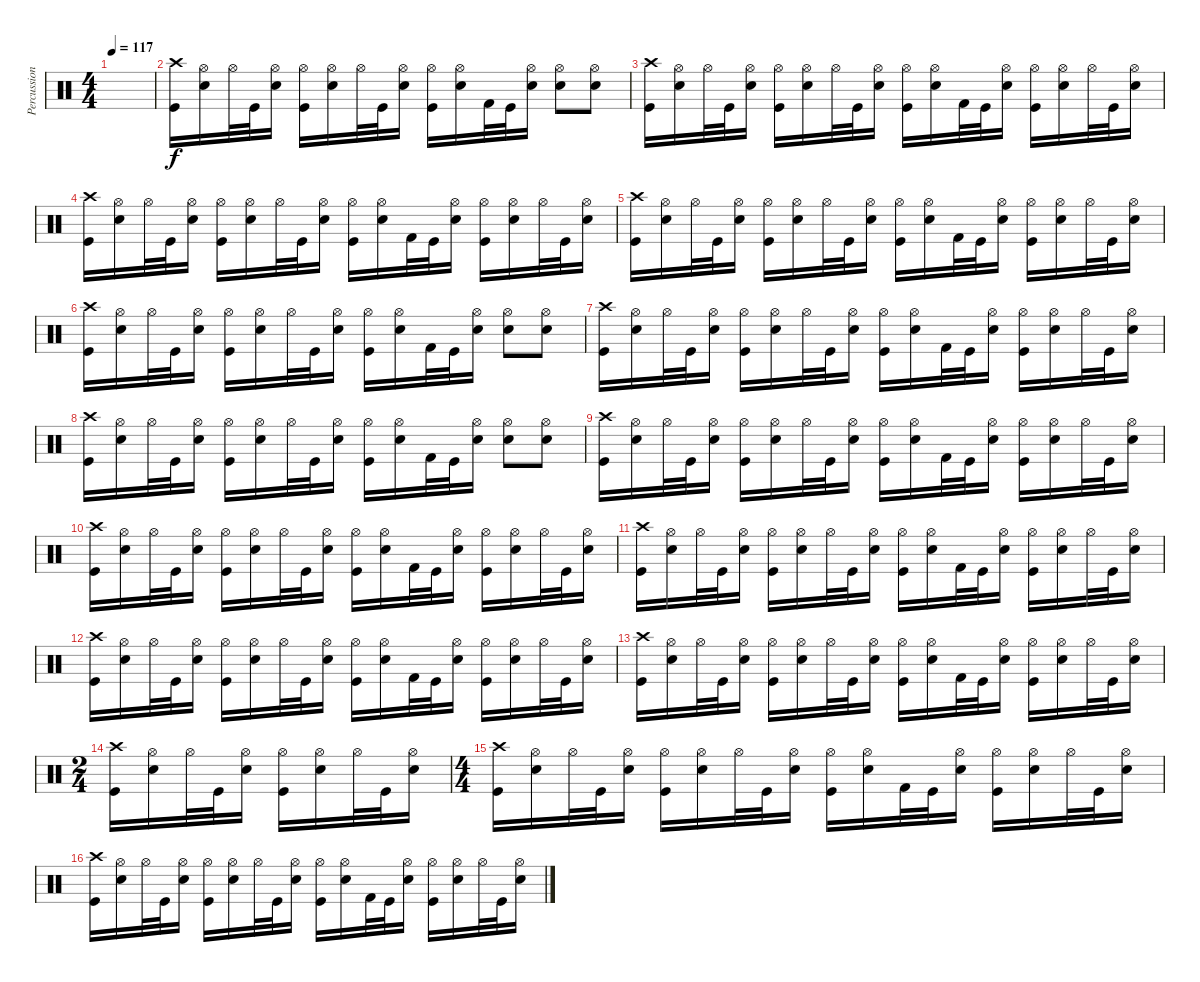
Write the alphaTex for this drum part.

\track ("Percussion" "Percussion") {instrument percussion}
\staff {score}
\articulation defaults
\ts (4 4)
\tempo 117
\clef neutral
\ks c
|
("Crash high (hit)" "Kick (hit)").16 ("Hi-Hat (open)" "Snare (hit) 2").16 "Hi-Hat (open)".32 "Kick (hit)".32 ("Hi-Hat (open)" "Snare (hit) 2").16 ("Hi-Hat (open)" "Kick (hit)").16 ("Hi-Hat (open)" "Snare (hit) 2").16 "Hi-Hat (open)"{x}.32 "Kick (hit)"{x}.32 ("Hi-Hat (open)"{x} "Snare (hit) 2"{x}).16 ("Hi-Hat (open)"{x} "Kick (hit)"{x}).16 ("Hi-Hat (open)"{x} "Snare (hit) 2"{x}).16 "Kick (hit) 2"{x}.32 "Kick (hit)"{x}.32 ("Hi-Hat (open)"{x} "Snare (hit) 2"{x}).16 ("Hi-Hat (open)"{x} "Snare (hit) 2").8 ("Hi-Hat (open)"{x} "Snare (hit) 2").8 |
("Crash high (hit)" "Kick (hit)").16 ("Hi-Hat (open)" "Snare (hit) 2").16 "Hi-Hat (open)".32 "Kick (hit)".32 ("Hi-Hat (open)" "Snare (hit) 2").16 ("Hi-Hat (open)" "Kick (hit)").16 ("Hi-Hat (open)" "Snare (hit) 2").16 "Hi-Hat (open)".32 "Kick (hit)".32 ("Hi-Hat (open)" "Snare (hit) 2").16 ("Hi-Hat (open)" "Kick (hit)").16 ("Hi-Hat (open)" "Snare (hit) 2").16 "Kick (hit) 2".32 "Kick (hit)".32 ("Hi-Hat (open)" "Snare (hit) 2").16 ("Hi-Hat (open)" "Kick (hit)").16 ("Hi-Hat (open)" "Snare (hit) 2").16 "Hi-Hat (open)".32 "Kick (hit)".32 ("Hi-Hat (open)" "Snare (hit) 2").16 |
("Crash high (hit)" "Kick (hit)").16 ("Hi-Hat (open)" "Snare (hit) 2").16 "Hi-Hat (open)".32 "Kick (hit)".32 ("Hi-Hat (open)" "Snare (hit) 2").16 ("Hi-Hat (open)" "Kick (hit)").16 ("Hi-Hat (open)" "Snare (hit) 2").16 "Hi-Hat (open)".32 "Kick (hit)".32 ("Hi-Hat (open)" "Snare (hit) 2").16 ("Hi-Hat (open)" "Kick (hit)").16 ("Hi-Hat (open)" "Snare (hit) 2").16 "Kick (hit) 2".32 "Kick (hit)".32 ("Hi-Hat (open)" "Snare (hit) 2").16 ("Hi-Hat (open)" "Kick (hit)").16 ("Hi-Hat (open)" "Snare (hit) 2").16 "Hi-Hat (open)".32 "Kick (hit)".32 ("Hi-Hat (open)" "Snare (hit) 2").16 |
("Crash high (hit)" "Kick (hit)").16 ("Hi-Hat (open)" "Snare (hit) 2").16 "Hi-Hat (open)".32 "Kick (hit)".32 ("Hi-Hat (open)" "Snare (hit) 2").16 ("Hi-Hat (open)" "Kick (hit)").16 ("Hi-Hat (open)" "Snare (hit) 2").16 "Hi-Hat (open)".32 "Kick (hit)".32 ("Hi-Hat (open)" "Snare (hit) 2").16 ("Hi-Hat (open)" "Kick (hit)").16 ("Hi-Hat (open)" "Snare (hit) 2").16 "Kick (hit) 2".32 "Kick (hit)".32 ("Hi-Hat (open)" "Snare (hit) 2").16 ("Hi-Hat (open)" "Kick (hit)").16 ("Hi-Hat (open)" "Snare (hit) 2").16 "Hi-Hat (open)".32 "Kick (hit)".32 ("Hi-Hat (open)" "Snare (hit) 2").16 |
("Crash high (hit)" "Kick (hit)").16 ("Hi-Hat (open)" "Snare (hit) 2").16 "Hi-Hat (open)".32 "Kick (hit)".32 ("Hi-Hat (open)" "Snare (hit) 2").16 ("Hi-Hat (open)" "Kick (hit)").16 ("Hi-Hat (open)" "Snare (hit) 2").16 "Hi-Hat (open)"{x}.32 "Kick (hit)"{x}.32 ("Hi-Hat (open)"{x} "Snare (hit) 2"{x}).16 ("Hi-Hat (open)"{x} "Kick (hit)"{x}).16 ("Hi-Hat (open)"{x} "Snare (hit) 2"{x}).16 "Kick (hit) 2"{x}.32 "Kick (hit)"{x}.32 ("Hi-Hat (open)"{x} "Snare (hit) 2"{x}).16 ("Hi-Hat (open)"{x} "Snare (hit) 2").8 ("Hi-Hat (open)"{x} "Snare (hit) 2").8 |
("Crash high (hit)" "Kick (hit)").16 ("Hi-Hat (open)" "Snare (hit) 2").16 "Hi-Hat (open)".32 "Kick (hit)".32 ("Hi-Hat (open)" "Snare (hit) 2").16 ("Hi-Hat (open)" "Kick (hit)").16 ("Hi-Hat (open)" "Snare (hit) 2").16 "Hi-Hat (open)".32 "Kick (hit)".32 ("Hi-Hat (open)" "Snare (hit) 2").16 ("Hi-Hat (open)" "Kick (hit)").16 ("Hi-Hat (open)" "Snare (hit) 2").16 "Kick (hit) 2".32 "Kick (hit)".32 ("Hi-Hat (open)" "Snare (hit) 2").16 ("Hi-Hat (open)" "Kick (hit)").16 ("Hi-Hat (open)" "Snare (hit) 2").16 "Hi-Hat (open)".32 "Kick (hit)".32 ("Hi-Hat (open)" "Snare (hit) 2").16 |
("Crash high (hit)" "Kick (hit)").16 ("Hi-Hat (open)" "Snare (hit) 2").16 "Hi-Hat (open)".32 "Kick (hit)".32 ("Hi-Hat (open)" "Snare (hit) 2").16 ("Hi-Hat (open)" "Kick (hit)").16 ("Hi-Hat (open)" "Snare (hit) 2").16 "Hi-Hat (open)"{x}.32 "Kick (hit)"{x}.32 ("Hi-Hat (open)"{x} "Snare (hit) 2"{x}).16 ("Hi-Hat (open)"{x} "Kick (hit)"{x}).16 ("Hi-Hat (open)"{x} "Snare (hit) 2"{x}).16 "Kick (hit) 2"{x}.32 "Kick (hit)"{x}.32 ("Hi-Hat (open)"{x} "Snare (hit) 2"{x}).16 ("Hi-Hat (open)"{x} "Snare (hit) 2").8 ("Hi-Hat (open)"{x} "Snare (hit) 2").8 |
("Crash high (hit)" "Kick (hit)").16 ("Hi-Hat (open)" "Snare (hit) 2").16 "Hi-Hat (open)".32 "Kick (hit)".32 ("Hi-Hat (open)" "Snare (hit) 2").16 ("Hi-Hat (open)" "Kick (hit)").16 ("Hi-Hat (open)" "Snare (hit) 2").16 "Hi-Hat (open)".32 "Kick (hit)".32 ("Hi-Hat (open)" "Snare (hit) 2").16 ("Hi-Hat (open)" "Kick (hit)").16 ("Hi-Hat (open)" "Snare (hit) 2").16 "Kick (hit) 2".32 "Kick (hit)".32 ("Hi-Hat (open)" "Snare (hit) 2").16 ("Hi-Hat (open)" "Kick (hit)").16 ("Hi-Hat (open)" "Snare (hit) 2").16 "Hi-Hat (open)".32 "Kick (hit)".32 ("Hi-Hat (open)" "Snare (hit) 2").16 |
("Crash high (hit)" "Kick (hit)").16 ("Hi-Hat (open)" "Snare (hit) 2").16 "Hi-Hat (open)".32 "Kick (hit)".32 ("Hi-Hat (open)" "Snare (hit) 2").16 ("Hi-Hat (open)" "Kick (hit)").16 ("Hi-Hat (open)" "Snare (hit) 2").16 "Hi-Hat (open)".32 "Kick (hit)".32 ("Hi-Hat (open)" "Snare (hit) 2").16 ("Hi-Hat (open)" "Kick (hit)").16 ("Hi-Hat (open)" "Snare (hit) 2").16 "Kick (hit) 2".32 "Kick (hit)".32 ("Hi-Hat (open)" "Snare (hit) 2").16 ("Hi-Hat (open)" "Kick (hit)").16 ("Hi-Hat (open)" "Snare (hit) 2").16 "Hi-Hat (open)".32 "Kick (hit)".32 ("Hi-Hat (open)" "Snare (hit) 2").16 |
("Crash high (hit)" "Kick (hit)").16 ("Hi-Hat (open)" "Snare (hit) 2").16 "Hi-Hat (open)".32 "Kick (hit)".32 ("Hi-Hat (open)" "Snare (hit) 2").16 ("Hi-Hat (open)" "Kick (hit)").16 ("Hi-Hat (open)" "Snare (hit) 2").16 "Hi-Hat (open)".32 "Kick (hit)".32 ("Hi-Hat (open)" "Snare (hit) 2").16 ("Hi-Hat (open)" "Kick (hit)").16 ("Hi-Hat (open)" "Snare (hit) 2").16 "Kick (hit) 2".32 "Kick (hit)".32 ("Hi-Hat (open)" "Snare (hit) 2").16 ("Hi-Hat (open)" "Kick (hit)").16 ("Hi-Hat (open)" "Snare (hit) 2").16 "Hi-Hat (open)".32 "Kick (hit)".32 ("Hi-Hat (open)" "Snare (hit) 2").16 |
("Crash high (hit)" "Kick (hit)").16 ("Hi-Hat (open)" "Snare (hit) 2").16 "Hi-Hat (open)".32 "Kick (hit)".32 ("Hi-Hat (open)" "Snare (hit) 2").16 ("Hi-Hat (open)" "Kick (hit)").16 ("Hi-Hat (open)" "Snare (hit) 2").16 "Hi-Hat (open)".32 "Kick (hit)".32 ("Hi-Hat (open)" "Snare (hit) 2").16 ("Hi-Hat (open)" "Kick (hit)").16 ("Hi-Hat (open)" "Snare (hit) 2").16 "Kick (hit) 2".32 "Kick (hit)".32 ("Hi-Hat (open)" "Snare (hit) 2").16 ("Hi-Hat (open)" "Kick (hit)").16 ("Hi-Hat (open)" "Snare (hit) 2").16 "Hi-Hat (open)".32 "Kick (hit)".32 ("Hi-Hat (open)" "Snare (hit) 2").16 |
("Crash high (hit)" "Kick (hit)").16 ("Hi-Hat (open)" "Snare (hit) 2").16 "Hi-Hat (open)".32 "Kick (hit)".32 ("Hi-Hat (open)" "Snare (hit) 2").16 ("Hi-Hat (open)" "Kick (hit)").16 ("Hi-Hat (open)" "Snare (hit) 2").16 "Hi-Hat (open)".32 "Kick (hit)".32 ("Hi-Hat (open)" "Snare (hit) 2").16 ("Hi-Hat (open)" "Kick (hit)").16 ("Hi-Hat (open)" "Snare (hit) 2").16 "Kick (hit) 2".32 "Kick (hit)".32 ("Hi-Hat (open)" "Snare (hit) 2").16 ("Hi-Hat (open)" "Kick (hit)").16 ("Hi-Hat (open)" "Snare (hit) 2").16 "Hi-Hat (open)".32 "Kick (hit)".32 ("Hi-Hat (open)" "Snare (hit) 2").16 |
\ts (2 4)
("Crash high (hit)" "Kick (hit)").16 ("Hi-Hat (open)" "Snare (hit) 2").16 "Hi-Hat (open)".32 "Kick (hit)".32 ("Hi-Hat (open)" "Snare (hit) 2").16 ("Hi-Hat (open)" "Kick (hit)").16 ("Hi-Hat (open)" "Snare (hit) 2").16 "Hi-Hat (open)".32 "Kick (hit)".32 ("Hi-Hat (open)" "Snare (hit) 2").16 |
\ts (4 4)
("Crash high (hit)" "Kick (hit)").16 ("Hi-Hat (open)" "Snare (hit) 2").16 "Hi-Hat (open)".32 "Kick (hit)".32 ("Hi-Hat (open)" "Snare (hit) 2").16 ("Hi-Hat (open)" "Kick (hit)").16 ("Hi-Hat (open)" "Snare (hit) 2").16 "Hi-Hat (open)".32 "Kick (hit)".32 ("Hi-Hat (open)" "Snare (hit) 2").16 ("Hi-Hat (open)" "Kick (hit)").16 ("Hi-Hat (open)" "Snare (hit) 2").16 "Kick (hit) 2".32 "Kick (hit)".32 ("Hi-Hat (open)" "Snare (hit) 2").16 ("Hi-Hat (open)" "Kick (hit)").16 ("Hi-Hat (open)" "Snare (hit) 2").16 "Hi-Hat (open)".32 "Kick (hit)".32 ("Hi-Hat (open)" "Snare (hit) 2").16 |
("Crash high (hit)" "Kick (hit)").16 ("Hi-Hat (open)" "Snare (hit) 2").16 "Hi-Hat (open)".32 "Kick (hit)".32 ("Hi-Hat (open)" "Snare (hit) 2").16 ("Hi-Hat (open)" "Kick (hit)").16 ("Hi-Hat (open)" "Snare (hit) 2").16 "Hi-Hat (open)".32 "Kick (hit)".32 ("Hi-Hat (open)" "Snare (hit) 2").16 ("Hi-Hat (open)" "Kick (hit)").16 ("Hi-Hat (open)" "Snare (hit) 2").16 "Kick (hit) 2".32 "Kick (hit)".32 ("Hi-Hat (open)" "Snare (hit) 2").16 ("Hi-Hat (open)" "Kick (hit)").16 ("Hi-Hat (open)" "Snare (hit) 2").16 "Hi-Hat (open)".32 "Kick (hit)".32 ("Hi-Hat (open)" "Snare (hit) 2").16
